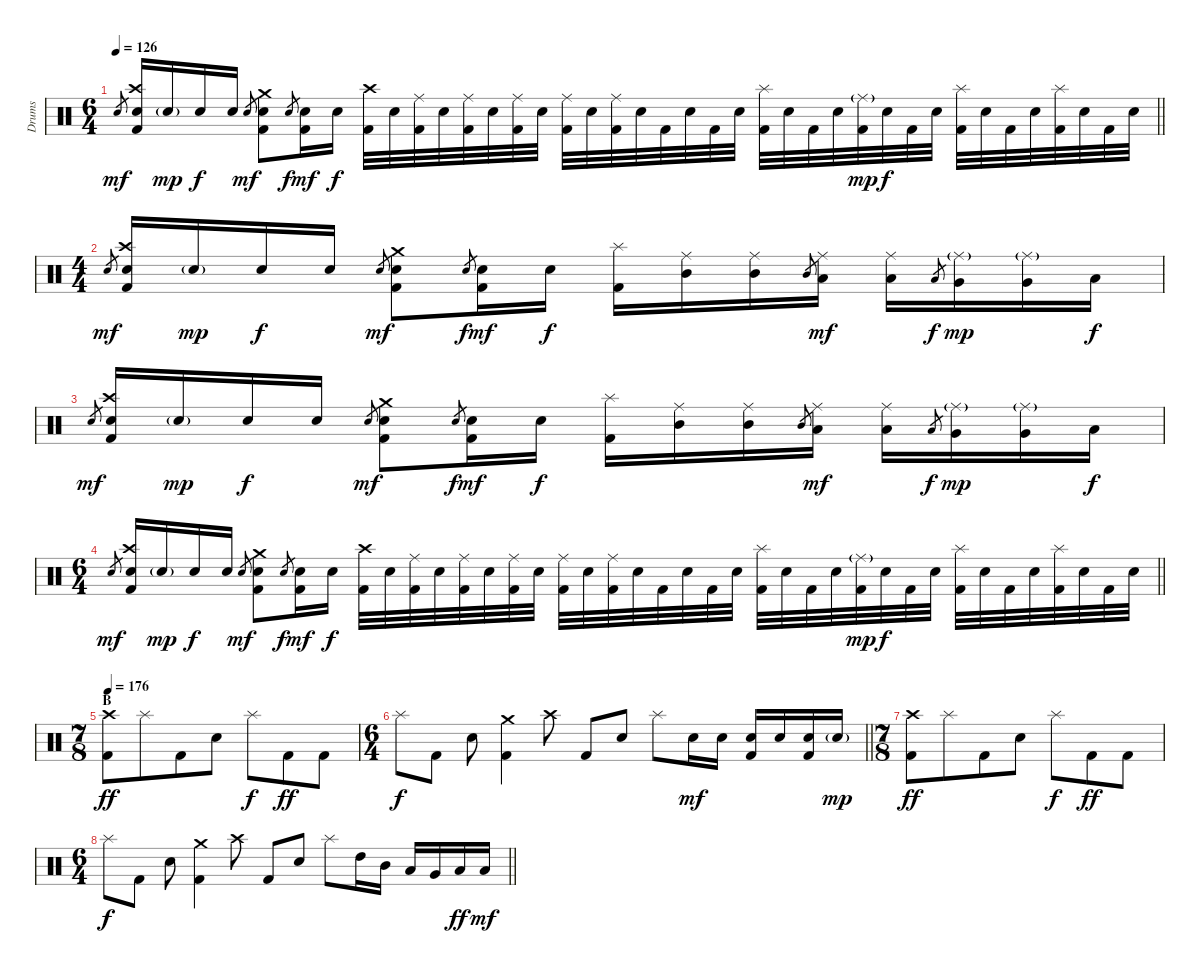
\track ("Drums" "Drums") {instrument percussion}
\staff {score}
\articulation defaults
\ts (6 4)
\tempo 126
\clef neutral
\barLineRight lightlight
\ks c "Electric Snare (hit)".8{gr dy mf}
("Crash high (hit)" "Electric Snare (hit)" "Kick (hit) 2").16 "Electric Snare (hit)"{g}.16{dy mp} "Electric Snare (hit)".16{dy f} "Electric Snare (hit)".16 "Electric Snare (hit)".8{gr dy mf} ("Crash medium (hit)" "Electric Snare (hit)" "Kick (hit) 2").8 "Electric Snare (hit)".8{gr dy f} ("Electric Snare (hit)" "Kick (hit) 2").16{dy mf} "Electric Snare (hit)".16{dy f} ("Crash high (hit)" "Kick (hit) 2").32 "Electric Snare (hit)".32 ("Ride (middle)" "Kick (hit) 2").32 "Electric Snare (hit)".32 ("Ride (middle)" "Kick (hit) 2").32 "Electric Snare (hit)".32 ("Ride (middle)" "Kick (hit) 2").32 "Electric Snare (hit)".32 ("Ride (middle)" "Kick (hit) 2").32 "Electric Snare (hit)".32 ("Ride (middle)" "Kick (hit) 2").32 "Electric Snare (hit)".32 "Kick (hit) 2".32 "Electric Snare (hit)".32 "Kick (hit) 2".32 "Electric Snare (hit)".32 ("Splash (hit)" "Kick (hit) 2").32 "Electric Snare (hit)".32 "Kick (hit) 2".32 "Electric Snare (hit)".32 ("Ride (middle)"{g} "Kick (hit) 2").32{dy mp} "Electric Snare (hit)".32{dy f} "Kick (hit) 2".32 "Electric Snare (hit)".32 ("Splash (hit)" "Kick (hit) 2").32 "Electric Snare (hit)".32 "Kick (hit) 2".32 "Electric Snare (hit)".32 ("Splash (hit)" "Kick (hit) 2").32 "Electric Snare (hit)".32 "Kick (hit) 2".32 "Electric Snare (hit)".32 |
\ts (4 4)
\section ("" "")
"Electric Snare (hit)".8{gr dy mf} ("Crash high (hit)" "Electric Snare (hit)" "Kick (hit) 2").16 "Electric Snare (hit)"{g}.16{dy mp} "Electric Snare (hit)".16{dy f} "Electric Snare (hit)".16 "Electric Snare (hit)".8{gr dy mf} ("Crash medium (hit)" "Electric Snare (hit)" "Kick (hit) 2").8 "Electric Snare (hit)".8{gr dy f} ("Electric Snare (hit)" "Kick (hit) 2").16{dy mf} "Electric Snare (hit)".16{dy f} ("Splash (hit)" "Kick (hit) 2").16 ("Ride (middle)" "Mid Tom (hit)").16 ("Ride (middle)" "Mid Tom (hit)").16 "Mid Tom (hit)".8{gr} ("Ride (middle)" "Low Tom (hit)").16{dy mf} ("Ride (middle)" "Low Tom (hit)").16 "Low Tom (hit)".8{gr dy f} ("Ride (middle)"{g} "Very Low Tom (hit)").16{dy mp} ("Ride (middle)"{g} "Very Low Tom (hit)").16 "Low Floor Tom (hit)".16{dy f} |
"Electric Snare (hit)".8{gr dy mf} ("Crash high (hit)" "Electric Snare (hit)" "Kick (hit) 2").16 "Electric Snare (hit)"{g}.16{dy mp} "Electric Snare (hit)".16{dy f} "Electric Snare (hit)".16 "Electric Snare (hit)".8{gr dy mf} ("Crash medium (hit)" "Electric Snare (hit)" "Kick (hit) 2").8 "Electric Snare (hit)".8{gr dy f} ("Electric Snare (hit)" "Kick (hit) 2").16{dy mf} "Electric Snare (hit)".16{dy f} ("Splash (hit)" "Kick (hit) 2").16 ("Ride (middle)" "Mid Tom (hit)").16 ("Ride (middle)" "Mid Tom (hit)").16 "Mid Tom (hit)".8{gr} ("Ride (middle)" "Low Tom (hit)").16{dy mf} ("Ride (middle)" "Low Tom (hit)").16 "Low Tom (hit)".8{gr dy f} ("Ride (middle)"{g} "Very Low Tom (hit)").16{dy mp} ("Ride (middle)"{g} "Very Low Tom (hit)").16 "Low Floor Tom (hit)".16{dy f} |
\ts (6 4)
\barLineRight lightlight "Electric Snare (hit)".8{gr dy mf}
("Crash high (hit)" "Electric Snare (hit)" "Kick (hit) 2").16 "Electric Snare (hit)"{g}.16{dy mp} "Electric Snare (hit)".16{dy f} "Electric Snare (hit)".16 "Electric Snare (hit)".8{gr dy mf} ("Crash medium (hit)" "Electric Snare (hit)" "Kick (hit) 2").8 "Electric Snare (hit)".8{gr dy f} ("Electric Snare (hit)" "Kick (hit) 2").16{dy mf} "Electric Snare (hit)".16{dy f} ("Crash high (hit)" "Kick (hit) 2").32 "Electric Snare (hit)".32 ("Ride (middle)" "Kick (hit) 2").32 "Electric Snare (hit)".32 ("Ride (middle)" "Kick (hit) 2").32 "Electric Snare (hit)".32 ("Ride (middle)" "Kick (hit) 2").32 "Electric Snare (hit)".32 ("Ride (middle)" "Kick (hit) 2").32 "Electric Snare (hit)".32 ("Ride (middle)" "Kick (hit) 2").32 "Electric Snare (hit)".32 "Kick (hit) 2".32 "Electric Snare (hit)".32 "Kick (hit) 2".32 "Electric Snare (hit)".32 ("Splash (hit)" "Kick (hit) 2").32 "Electric Snare (hit)".32 "Kick (hit) 2".32 "Electric Snare (hit)".32 ("Ride (middle)"{g} "Kick (hit) 2").32{dy mp} "Electric Snare (hit)".32{dy f} "Kick (hit) 2".32 "Electric Snare (hit)".32 ("Splash (hit)" "Kick (hit) 2").32 "Electric Snare (hit)".32 "Kick (hit) 2".32 "Electric Snare (hit)".32 ("Splash (hit)" "Kick (hit) 2").32 "Electric Snare (hit)".32 "Kick (hit) 2".32 "Electric Snare (hit)".32 |
\ts (7 8)
\section ("" "B")
\tempo 176
("Crash high (hit)" "Kick (hit) 2").8{dy ff} "Splash (hit)".8 "Kick (hit) 2".8 "Electric Snare (hit)".8 "Splash (hit)".8{dy f} "Kick (hit) 2".8{dy ff} "Kick (hit) 2".8 |
\ts (6 4)
\barLineRight lightlight "Splash (hit)".8{dy f} "Kick (hit) 2".8 "Electric Snare (hit)".8
("Crash medium (hit)" "Kick (hit) 2").4 "Crash high (hit)".8 "Kick (hit) 2".8 "Electric Snare (hit)".8 "Splash (hit)".8 "Electric Snare (hit)".16{dy mf} "Electric Snare (hit)".16 ("Electric Snare (hit)" "Kick (hit) 2").16 "Electric Snare (hit)".16 ("Electric Snare (hit)" "Kick (hit) 2").16 "Electric Snare (hit)"{g}.16{dy mp} |
\ts (7 8)
("Crash high (hit)" "Kick (hit) 2").8{dy ff} "Splash (hit)".8 "Kick (hit) 2".8 "Electric Snare (hit)".8 "Splash (hit)".8{dy f} "Kick (hit) 2".8{dy ff} "Kick (hit) 2".8 |
\ts (6 4)
\barLineRight lightlight "Splash (hit)".8{dy f} "Kick (hit) 2".8 "Electric Snare (hit)".8
("Crash medium (hit)" "Kick (hit) 2").4 "Crash high (hit)".8 "Kick (hit) 2".8 "Electric Snare (hit)".8 "Splash (hit)".8 "High Tom (hit)".16 "Mid Tom (hit)".16 "Low Tom (hit)".16 "Very Low Tom (hit)".16 "Low Floor Tom (hit)".16{dy ff} "Low Floor Tom (hit)".16{dy mf}
